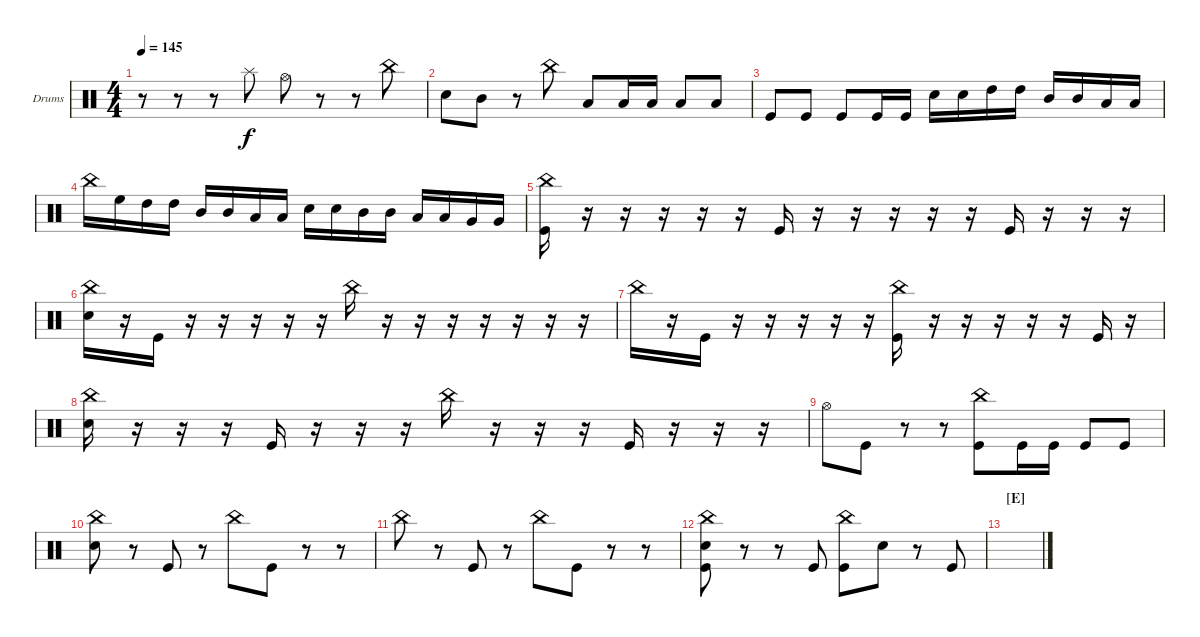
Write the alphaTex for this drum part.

\defaultSystemsLayout 4
\bracketExtendMode groupsimilarinstruments
\firstSystemTrackNameOrientation horizontal
\otherSystemsTrackNameOrientation horizontal
\track ("Drumkit" "Drums") {instrument percussion}
\staff {score}
\articulation defaults
\ts (4 4)
\tempo 145
\clef neutral
\ks c
r.8{dy f} r.8 r.8 "Splash (hit)".8 "Hi-Hat (open)".8 r.8 r.8 "China (hit)".8 |
"Snare (hit) 2".8 "Mid Tom (hit)".8 r.8 "China (hit)".8 "Low Tom (hit)".8 "Low Tom (hit)".16 "Low Tom (hit)".16 "Low Tom (hit)".8 "Low Tom (hit)".8 |
"Kick (hit)".8 "Kick (hit)".8 "Kick (hit)".8 "Kick (hit)".16 "Kick (hit)".16 "Snare (hit) 2".16 "Snare (hit) 2".16 "High Tom (hit)".16 "High Tom (hit)".16 "Mid Tom (hit)".16 "Mid Tom (hit)".16 "Low Tom (hit)".16 "Low Tom (hit)".16 |
"China (hit)".16 "High Floor Tom (hit)".16 "High Tom (hit)".16 "High Tom (hit)".16 "Mid Tom (hit)".16 "Mid Tom (hit)".16 "Low Tom (hit)".16 "Low Tom (hit)".16 "Snare (hit) 2".16 "Snare (hit) 2".16 "Mid Tom (hit)".16 "Mid Tom (hit)".16 "Low Tom (hit)".16 "Low Tom (hit)".16 "Very Low Tom (hit)".16 "Very Low Tom (hit)".16 |
("China (hit)" "Kick (hit)").16 r.16 r.16 r.16 r.16 r.16 "Kick (hit)".16 r.16 r.16 r.16 r.16 r.16 "Kick (hit)".16 r.16 r.16 r.16 |
("China (hit)" "Snare (hit) 2").16 r.16 "Kick (hit)".16 r.16 r.16 r.16 r.16 r.16 "China (hit)".16 r.16 r.16 r.16 r.16 r.16 r.16 r.16 |
"China (hit)".16 r.16 "Kick (hit)".16 r.16 r.16 r.16 r.16 r.16 ("China (hit)" "Kick (hit)").16 r.16 r.16 r.16 r.16 r.16 "Kick (hit)".16 r.16 |
("China (hit)" "Snare (hit) 2").16 r.16 r.16 r.16 "Kick (hit)".16 r.16 r.16 r.16 "China (hit)".16 r.16 r.16 r.16 "Kick (hit)".16 r.16 r.16 r.16 |
"Hi-Hat (open)".8 "Kick (hit)".8 r.8 r.8 ("China (hit)" "Kick (hit)").8 "Kick (hit)".16 "Kick (hit)".16 "Kick (hit)".8 "Kick (hit)".8 |
("Snare (hit) 2" "China (hit)").8 r.8 "Kick (hit)".8 r.8 "China (hit)".8 "Kick (hit)".8 r.8 r.8 |
"China (hit)".8 r.8 "Kick (hit)".8 r.8 "China (hit)".8 "Kick (hit)".8 r.8 r.8 |
("Snare (hit) 2" "China (hit)" "Kick (hit)").8 r.8 r.8 "Kick (hit)".8 ("Kick (hit)" "China (hit)").8 "Snare (hit) 2".8 r.8 "Kick (hit)".8 |
\section ("E" "")
